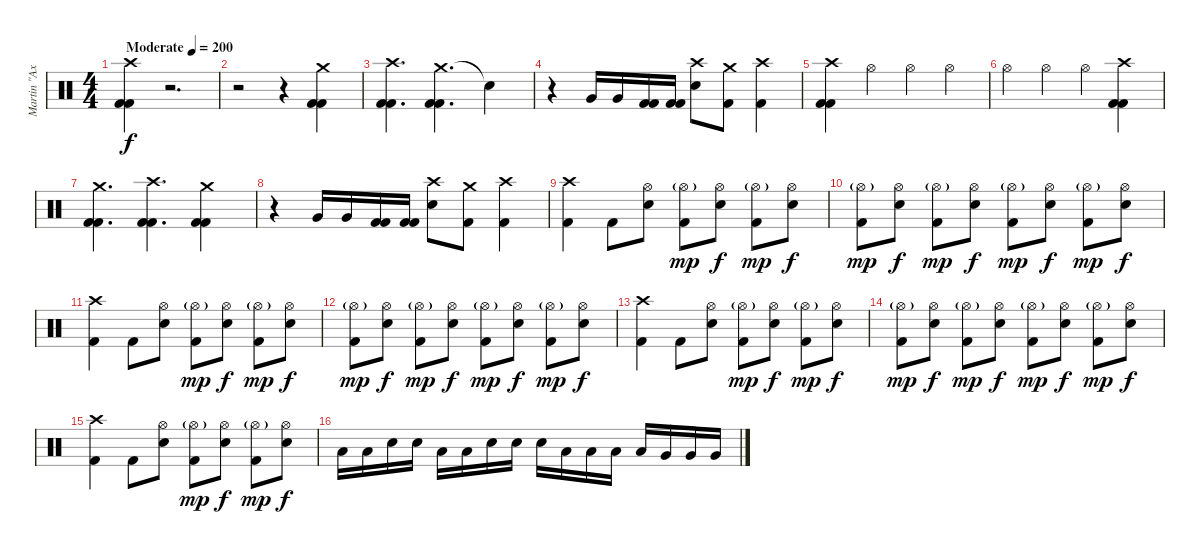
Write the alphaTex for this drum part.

\track ("Martin \"Axe\" Axenrot" "Martin \"Ax") {instrument percussion}
\staff {score}
\articulation defaults
\ts (4 4)
\tempo (200 "Moderate")
\clef neutral
\ks c
("Crash high (hit)" "Kick (hit) 2" "Kick (hit) 2").4{dy f} r.2{d} |
r.2 r.4 ("Crash medium (hit)" "Kick (hit) 2" "Kick (hit) 2").4 |
("Crash high (hit)" "Kick (hit) 2" "Kick (hit) 2").4{d} ("Crash medium (hit)" "Kick (hit) 2" "Kick (hit) 2").4{d} "Snare (hit)"{t}.4 |
r.4 "Very Low Tom (hit)".16 "Very Low Tom (hit)".16 ("Kick (hit) 2" "Kick (hit) 2").16 ("Kick (hit) 2" "Kick (hit) 2").16 ("Crash high (hit)" "Electric Snare (hit)").8 ("Crash medium (hit)" "Kick (hit) 2").8 ("Crash high (hit)" "Kick (hit) 2").4 |
("Crash high (hit)" "Kick (hit) 2" "Kick (hit) 2").4 "Hi-Hat (open)".4 "Hi-Hat (open)".4 "Hi-Hat (open)".4 |
"Hi-Hat (open)".4 "Hi-Hat (open)".4 "Hi-Hat (open)".4 ("Crash high (hit)" "Kick (hit) 2" "Kick (hit) 2").4 |
("Crash medium (hit)" "Kick (hit) 2" "Kick (hit) 2").4{d} ("Crash high (hit)" "Kick (hit) 2" "Kick (hit) 2").4{d} ("Crash medium (hit)" "Kick (hit) 2" "Kick (hit) 2").4 |
r.4 "Very Low Tom (hit)".16 "Very Low Tom (hit)".16 ("Kick (hit) 2" "Kick (hit) 2").16 ("Kick (hit) 2" "Kick (hit) 2").16 ("Crash high (hit)" "Electric Snare (hit)").8 ("Crash medium (hit)" "Kick (hit) 2").8 ("Crash high (hit)" "Kick (hit) 2").4 |
("Crash high (hit)" "Kick (hit) 2").4 "Kick (hit) 2".8 ("Hi-Hat (open)" "Electric Snare (hit)").8 ("Hi-Hat (open)"{g} "Kick (hit) 2").8{dy mp} ("Hi-Hat (open)" "Electric Snare (hit)").8{dy f} ("Hi-Hat (open)"{g} "Kick (hit) 2").8{dy mp} ("Hi-Hat (open)" "Electric Snare (hit)").8{dy f} |
("Hi-Hat (open)"{g} "Kick (hit) 2").8{dy mp} ("Hi-Hat (open)" "Electric Snare (hit)").8{dy f} ("Hi-Hat (open)"{g} "Kick (hit) 2").8{dy mp} ("Hi-Hat (open)" "Electric Snare (hit)").8{dy f} ("Hi-Hat (open)"{g} "Kick (hit) 2").8{dy mp} ("Hi-Hat (open)" "Electric Snare (hit)").8{dy f} ("Hi-Hat (open)"{g} "Kick (hit) 2").8{dy mp} ("Hi-Hat (open)" "Electric Snare (hit)").8{dy f} |
("Crash high (hit)" "Kick (hit) 2").4 "Kick (hit) 2".8 ("Hi-Hat (open)" "Electric Snare (hit)").8 ("Hi-Hat (open)"{g} "Kick (hit) 2").8{dy mp} ("Hi-Hat (open)" "Electric Snare (hit)").8{dy f} ("Hi-Hat (open)"{g} "Kick (hit) 2").8{dy mp} ("Hi-Hat (open)" "Electric Snare (hit)").8{dy f} |
("Hi-Hat (open)"{g} "Kick (hit) 2").8{dy mp} ("Hi-Hat (open)" "Electric Snare (hit)").8{dy f} ("Hi-Hat (open)"{g} "Kick (hit) 2").8{dy mp} ("Hi-Hat (open)" "Electric Snare (hit)").8{dy f} ("Hi-Hat (open)"{g} "Kick (hit) 2").8{dy mp} ("Hi-Hat (open)" "Electric Snare (hit)").8{dy f} ("Hi-Hat (open)"{g} "Kick (hit) 2").8{dy mp} ("Hi-Hat (open)" "Electric Snare (hit)").8{dy f} |
("Crash high (hit)" "Kick (hit) 2").4 "Kick (hit) 2".8 ("Hi-Hat (open)" "Electric Snare (hit)").8 ("Hi-Hat (open)"{g} "Kick (hit) 2").8{dy mp} ("Hi-Hat (open)" "Electric Snare (hit)").8{dy f} ("Hi-Hat (open)"{g} "Kick (hit) 2").8{dy mp} ("Hi-Hat (open)" "Electric Snare (hit)").8{dy f} |
("Hi-Hat (open)"{g} "Kick (hit) 2").8{dy mp} ("Hi-Hat (open)" "Electric Snare (hit)").8{dy f} ("Hi-Hat (open)"{g} "Kick (hit) 2").8{dy mp} ("Hi-Hat (open)" "Electric Snare (hit)").8{dy f} ("Hi-Hat (open)"{g} "Kick (hit) 2").8{dy mp} ("Hi-Hat (open)" "Electric Snare (hit)").8{dy f} ("Hi-Hat (open)"{g} "Kick (hit) 2").8{dy mp} ("Hi-Hat (open)" "Electric Snare (hit)").8{dy f} |
("Crash high (hit)" "Kick (hit) 2").4 "Kick (hit) 2".8 ("Hi-Hat (open)" "Electric Snare (hit)").8 ("Hi-Hat (open)"{g} "Kick (hit) 2").8{dy mp} ("Hi-Hat (open)" "Electric Snare (hit)").8{dy f} ("Hi-Hat (open)"{g} "Kick (hit) 2").8{dy mp} ("Hi-Hat (open)" "Electric Snare (hit)").8{dy f} |
"Low Tom (hit)".16 "Low Tom (hit)".16 "Electric Snare (hit)".16 "Electric Snare (hit)".16 "Low Tom (hit)".16 "Low Tom (hit)".16 "Electric Snare (hit)".16 "Electric Snare (hit)".16 "Electric Snare (hit)".16 "Low Tom (hit)".16 "Low Tom (hit)".16 "Low Tom (hit)".16 "Low Tom (hit)".16 "Very Low Tom (hit)".16 "Very Low Tom (hit)".16 "Very Low Tom (hit)".16
